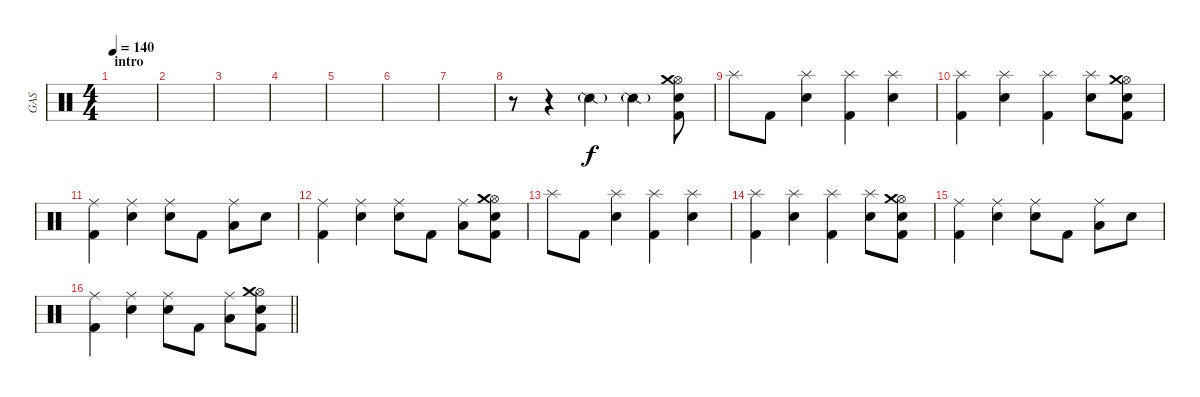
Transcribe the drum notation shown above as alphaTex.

\track ("GAS" "GAS") {instrument percussion}
\staff {score}
\articulation defaults
\ts (4 4)
\section ("" "intro")
\tempo 140
\clef neutral
\ks c
|
|
|
|
|
|
|
r.8 r.4 "Snare (side stick) 2"{g}.4 "Snare (side stick) 2"{g}.4 ("Kick (hit) 2" "Electric Snare (hit)" "Hi-Hat (open)" "Crash medium (hit)").8{dy f} |
"Splash (hit)".8 "Kick (hit) 2".8 ("Electric Snare (hit)" "Splash (hit)").4 ("Kick (hit) 2" "Splash (hit)").4 ("Electric Snare (hit)" "Splash (hit)").4 |
("Kick (hit) 2" "Splash (hit)").4 ("Electric Snare (hit)" "Splash (hit)").4 ("Kick (hit) 2" "Splash (hit)").4 ("Electric Snare (hit)" "Splash (hit)").8 ("Kick (hit) 2" "Electric Snare (hit)" "Hi-Hat (open)" "Crash medium (hit)").8 |
("Kick (hit) 2" "Ride (middle)").4 ("Electric Snare (hit)" "Ride (middle)").4 ("Electric Snare (hit)" "Ride (middle)").8 "Kick (hit) 2".8 ("Low Tom (hit)" "Ride (middle)").8 "Electric Snare (hit)".8 |
("Kick (hit) 2" "Ride (middle)").4 ("Electric Snare (hit)" "Ride (middle)").4 ("Electric Snare (hit)" "Ride (middle)").8 "Kick (hit) 2".8 ("Low Tom (hit)" "Ride (middle)").8 ("Kick (hit) 2" "Electric Snare (hit)" "Hi-Hat (open)" "Crash medium (hit)").8 |
"Splash (hit)".8 "Kick (hit) 2".8 ("Electric Snare (hit)" "Splash (hit)").4 ("Kick (hit) 2" "Splash (hit)").4 ("Electric Snare (hit)" "Splash (hit)").4 |
("Kick (hit) 2" "Splash (hit)").4 ("Electric Snare (hit)" "Splash (hit)").4 ("Kick (hit) 2" "Splash (hit)").4 ("Electric Snare (hit)" "Splash (hit)").8 ("Kick (hit) 2" "Electric Snare (hit)" "Hi-Hat (open)" "Crash medium (hit)").8 |
("Kick (hit) 2" "Ride (middle)").4 ("Electric Snare (hit)" "Ride (middle)").4 ("Electric Snare (hit)" "Ride (middle)").8 "Kick (hit) 2".8 ("Low Tom (hit)" "Ride (middle)").8 "Electric Snare (hit)".8 |
\barLineRight lightlight
("Kick (hit) 2" "Ride (middle)").4 ("Electric Snare (hit)" "Ride (middle)").4 ("Electric Snare (hit)" "Ride (middle)").8 "Kick (hit) 2".8 ("Low Tom (hit)" "Ride (middle)").8 ("Kick (hit) 2" "Electric Snare (hit)" "Hi-Hat (open)" "Crash medium (hit)").8
